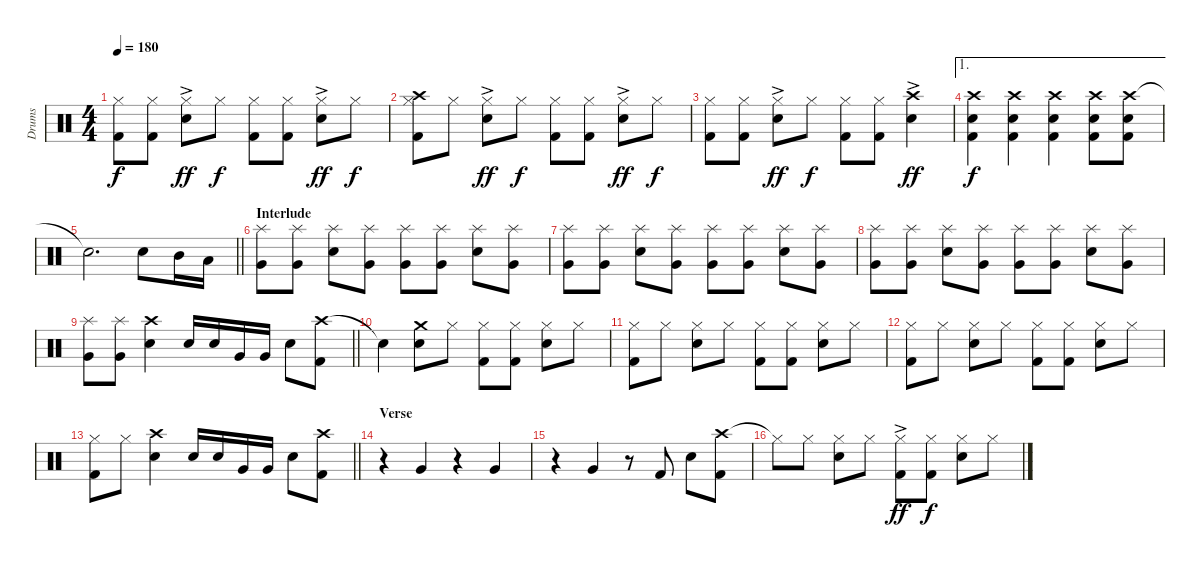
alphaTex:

\track ("Drums" "Drums") {instrument percussion}
\staff {score}
\articulation defaults
\ts (4 4)
\tempo 180
\clef neutral
\ks c
("Hi-Hat (closed)" "Kick (hit) 2").8{dy f} ("Hi-Hat (closed)" "Kick (hit) 2").8 ("Hi-Hat (closed)"{ac} "Snare (hit) 2").8{dy ff} "Hi-Hat (closed)".8{dy f} ("Hi-Hat (closed)" "Kick (hit) 2").8 ("Hi-Hat (closed)" "Kick (hit) 2").8 ("Hi-Hat (closed)"{ac} "Snare (hit) 2").8{dy ff} "Hi-Hat (closed)".8{dy f} |
("Hi-Hat (closed)" "Crash high (hit)" "Kick (hit) 2").8 "Hi-Hat (closed)".8 ("Hi-Hat (closed)"{ac} "Snare (hit) 2").8{dy ff} "Hi-Hat (closed)".8{dy f} ("Hi-Hat (closed)" "Kick (hit) 2").8 ("Hi-Hat (closed)" "Kick (hit) 2").8 ("Hi-Hat (closed)"{ac} "Snare (hit) 2").8{dy ff} "Hi-Hat (closed)".8{dy f} |
("Hi-Hat (closed)" "Kick (hit) 2").8 ("Hi-Hat (closed)" "Kick (hit) 2").8 ("Hi-Hat (closed)"{ac} "Snare (hit) 2").8{dy ff} "Hi-Hat (closed)".8{dy f} ("Hi-Hat (closed)" "Kick (hit) 2").8 ("Hi-Hat (closed)" "Kick (hit) 2").8 ("Crash high (hit)"{ac} "Snare (hit) 2").4{dy ff} |
\ae 1
("Crash high (hit)" "Snare (hit) 2" "Kick (hit) 2").4{dy f} ("Crash high (hit)" "Snare (hit) 2" "Kick (hit) 2").4 ("Crash high (hit)" "Snare (hit) 2" "Kick (hit) 2").4 ("Crash high (hit)" "Snare (hit) 2" "Kick (hit) 2").8 ("Crash high (hit)" "Snare (hit) 2" "Kick (hit) 2").8 |
\barLineRight lightlight "Snare (hit)"{t}.2{d} "Snare (hit) 2".8 "Mid Tom (hit)".16 "Low Tom (hit)".16
|
\section ("" "Interlude")
("Splash (hit)" "Very Low Tom (hit)").8 ("Splash (hit)" "Very Low Tom (hit)").8 ("Splash (hit)" "Snare (hit) 2").8 ("Splash (hit)" "Very Low Tom (hit)").8 ("Splash (hit)" "Very Low Tom (hit)").8 ("Splash (hit)" "Very Low Tom (hit)").8 ("Splash (hit)" "Snare (hit) 2").8 ("Splash (hit)" "Very Low Tom (hit)").8 |
("Splash (hit)" "Very Low Tom (hit)").8 ("Splash (hit)" "Very Low Tom (hit)").8 ("Splash (hit)" "Snare (hit) 2").8 ("Splash (hit)" "Very Low Tom (hit)").8 ("Splash (hit)" "Very Low Tom (hit)").8 ("Splash (hit)" "Very Low Tom (hit)").8 ("Splash (hit)" "Snare (hit) 2").8 ("Splash (hit)" "Very Low Tom (hit)").8 |
("Splash (hit)" "Very Low Tom (hit)").8 ("Splash (hit)" "Very Low Tom (hit)").8 ("Splash (hit)" "Snare (hit) 2").8 ("Splash (hit)" "Very Low Tom (hit)").8 ("Splash (hit)" "Very Low Tom (hit)").8 ("Splash (hit)" "Very Low Tom (hit)").8 ("Splash (hit)" "Snare (hit) 2").8 ("Splash (hit)" "Very Low Tom (hit)").8 |
\barLineRight lightlight
("Splash (hit)" "Very Low Tom (hit)").8 ("Splash (hit)" "Very Low Tom (hit)").8 ("Crash high (hit)" "Snare (hit) 2").4 "Snare (hit) 2".16 "Snare (hit) 2".16 "Very Low Tom (hit)".16 "Very Low Tom (hit)".16 "Snare (hit) 2".8 ("Crash high (hit)" "Kick (hit) 2").8 |
"Snare (hit)"{t}.4 ("Crash medium (hit)" "Snare (hit) 2").8 "Hi-Hat (closed)".8 ("Hi-Hat (closed)" "Kick (hit) 2").8 ("Hi-Hat (closed)" "Kick (hit) 2").8 ("Hi-Hat (closed)" "Snare (hit) 2").8 "Hi-Hat (closed)".8 |
("Hi-Hat (closed)" "Kick (hit) 2").8 "Hi-Hat (closed)".8 ("Hi-Hat (closed)" "Snare (hit) 2").8 "Hi-Hat (closed)".8 ("Hi-Hat (closed)" "Kick (hit) 2").8 ("Hi-Hat (closed)" "Kick (hit) 2").8 ("Hi-Hat (closed)" "Snare (hit) 2").8 "Hi-Hat (closed)".8 |
("Hi-Hat (closed)" "Kick (hit) 2").8 "Hi-Hat (closed)".8 ("Hi-Hat (closed)" "Snare (hit) 2").8 "Hi-Hat (closed)".8 ("Hi-Hat (closed)" "Kick (hit) 2").8 ("Hi-Hat (closed)" "Kick (hit) 2").8 ("Hi-Hat (closed)" "Snare (hit) 2").8 "Hi-Hat (closed)".8 |
\barLineRight lightlight
("Hi-Hat (closed)" "Kick (hit) 2").8 "Hi-Hat (closed)".8 ("Crash high (hit)" "Snare (hit) 2").4 "Snare (hit) 2".16 "Snare (hit) 2".16 "Very Low Tom (hit)".16 "Very Low Tom (hit)".16 "Snare (hit) 2".8 ("Crash high (hit)" "Kick (hit) 2").8 |
\section ("" "Verse")
r.4 "Very Low Tom (hit)".4 r.4 "Very Low Tom (hit)".4 |
r.4 "Very Low Tom (hit)".4 r.8 "Kick (hit) 2".8 "Snare (hit) 2".8 ("Crash high (hit)" "Kick (hit) 2").8 |
"Hi-Hat (closed)"{t}.8 "Hi-Hat (closed)".8 ("Hi-Hat (closed)" "Snare (hit) 2").8 "Hi-Hat (closed)".8 ("Hi-Hat (closed)"{ac} "Kick (hit) 2").8{dy ff} ("Hi-Hat (closed)" "Kick (hit) 2").8{dy f} ("Hi-Hat (closed)" "Snare (hit) 2").8 "Hi-Hat (closed)".8
